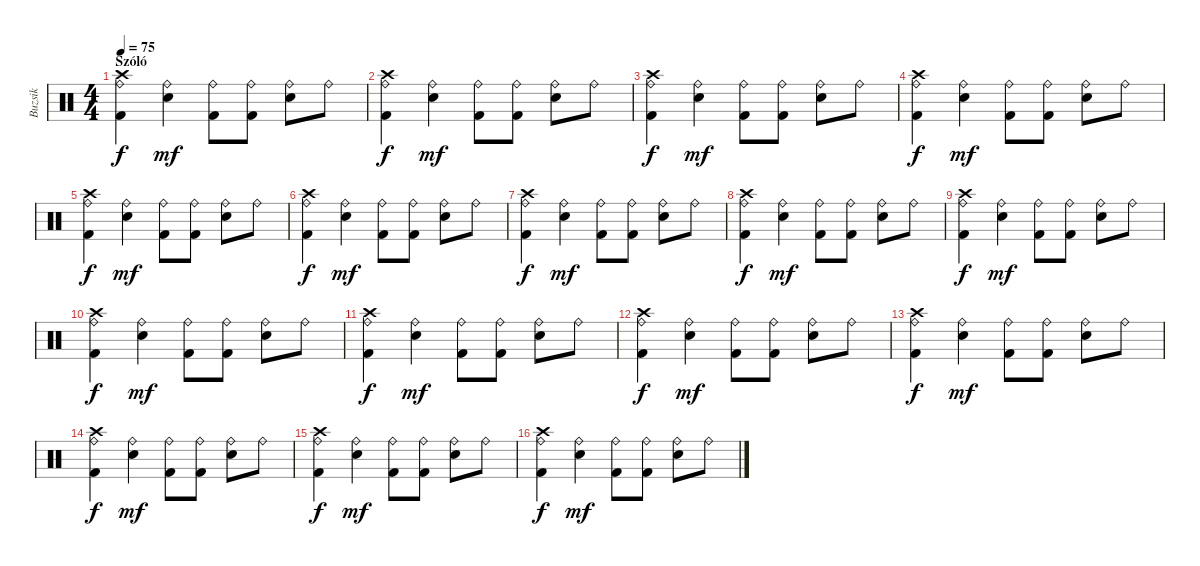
\track ("Buzsik" "Buzsik") {instrument percussion}
\staff {score}
\articulation defaults
\ts (4 4)
\section ("" "Szóló")
\tempo 75
\clef neutral
\ks c
("Crash high (hit)" "Ride (bell)" "Kick (hit) 2").4{dy f} ("Ride (bell)" "Snare (hit) 2").4{dy mf} ("Ride (bell)" "Kick (hit) 2").8 ("Ride (bell)" "Kick (hit) 2").8 ("Ride (bell)" "Snare (hit) 2").8 "Ride (bell)".8 |
("Crash high (hit)" "Ride (bell)" "Kick (hit) 2").4{dy f} ("Ride (bell)" "Snare (hit) 2").4{dy mf} ("Ride (bell)" "Kick (hit) 2").8 ("Ride (bell)" "Kick (hit) 2").8 ("Ride (bell)" "Snare (hit) 2").8 "Ride (bell)".8 |
("Crash high (hit)" "Ride (bell)" "Kick (hit) 2").4{dy f} ("Ride (bell)" "Snare (hit) 2").4{dy mf} ("Ride (bell)" "Kick (hit) 2").8 ("Ride (bell)" "Kick (hit) 2").8 ("Ride (bell)" "Snare (hit) 2").8 "Ride (bell)".8 |
("Crash high (hit)" "Ride (bell)" "Kick (hit) 2").4{dy f} ("Ride (bell)" "Snare (hit) 2").4{dy mf} ("Ride (bell)" "Kick (hit) 2").8 ("Ride (bell)" "Kick (hit) 2").8 ("Ride (bell)" "Snare (hit) 2").8 "Ride (bell)".8 |
("Crash high (hit)" "Ride (bell)" "Kick (hit) 2").4{dy f} ("Ride (bell)" "Snare (hit) 2").4{dy mf} ("Ride (bell)" "Kick (hit) 2").8 ("Ride (bell)" "Kick (hit) 2").8 ("Ride (bell)" "Snare (hit) 2").8 "Ride (bell)".8 |
("Crash high (hit)" "Ride (bell)" "Kick (hit) 2").4{dy f} ("Ride (bell)" "Snare (hit) 2").4{dy mf} ("Ride (bell)" "Kick (hit) 2").8 ("Ride (bell)" "Kick (hit) 2").8 ("Ride (bell)" "Snare (hit) 2").8 "Ride (bell)".8 |
("Crash high (hit)" "Ride (bell)" "Kick (hit) 2").4{dy f} ("Ride (bell)" "Snare (hit) 2").4{dy mf} ("Ride (bell)" "Kick (hit) 2").8 ("Ride (bell)" "Kick (hit) 2").8 ("Ride (bell)" "Snare (hit) 2").8 "Ride (bell)".8 |
("Crash high (hit)" "Ride (bell)" "Kick (hit) 2").4{dy f} ("Ride (bell)" "Snare (hit) 2").4{dy mf} ("Ride (bell)" "Kick (hit) 2").8 ("Ride (bell)" "Kick (hit) 2").8 ("Ride (bell)" "Snare (hit) 2").8 "Ride (bell)".8 |
("Crash high (hit)" "Ride (bell)" "Kick (hit) 2").4{dy f} ("Ride (bell)" "Snare (hit) 2").4{dy mf} ("Ride (bell)" "Kick (hit) 2").8 ("Ride (bell)" "Kick (hit) 2").8 ("Ride (bell)" "Snare (hit) 2").8 "Ride (bell)".8 |
("Crash high (hit)" "Ride (bell)" "Kick (hit) 2").4{dy f} ("Ride (bell)" "Snare (hit) 2").4{dy mf} ("Ride (bell)" "Kick (hit) 2").8 ("Ride (bell)" "Kick (hit) 2").8 ("Ride (bell)" "Snare (hit) 2").8 "Ride (bell)".8 |
("Crash high (hit)" "Ride (bell)" "Kick (hit) 2").4{dy f} ("Ride (bell)" "Snare (hit) 2").4{dy mf} ("Ride (bell)" "Kick (hit) 2").8 ("Ride (bell)" "Kick (hit) 2").8 ("Ride (bell)" "Snare (hit) 2").8 "Ride (bell)".8 |
("Crash high (hit)" "Ride (bell)" "Kick (hit) 2").4{dy f} ("Ride (bell)" "Snare (hit) 2").4{dy mf} ("Ride (bell)" "Kick (hit) 2").8 ("Ride (bell)" "Kick (hit) 2").8 ("Ride (bell)" "Snare (hit) 2").8 "Ride (bell)".8 |
("Crash high (hit)" "Ride (bell)" "Kick (hit) 2").4{dy f} ("Ride (bell)" "Snare (hit) 2").4{dy mf} ("Ride (bell)" "Kick (hit) 2").8 ("Ride (bell)" "Kick (hit) 2").8 ("Ride (bell)" "Snare (hit) 2").8 "Ride (bell)".8 |
("Crash high (hit)" "Ride (bell)" "Kick (hit) 2").4{dy f} ("Ride (bell)" "Snare (hit) 2").4{dy mf} ("Ride (bell)" "Kick (hit) 2").8 ("Ride (bell)" "Kick (hit) 2").8 ("Ride (bell)" "Snare (hit) 2").8 "Ride (bell)".8 |
("Crash high (hit)" "Ride (bell)" "Kick (hit) 2").4{dy f} ("Ride (bell)" "Snare (hit) 2").4{dy mf} ("Ride (bell)" "Kick (hit) 2").8 ("Ride (bell)" "Kick (hit) 2").8 ("Ride (bell)" "Snare (hit) 2").8 "Ride (bell)".8 |
("Crash high (hit)" "Ride (bell)" "Kick (hit) 2").4{dy f} ("Ride (bell)" "Snare (hit) 2").4{dy mf} ("Ride (bell)" "Kick (hit) 2").8 ("Ride (bell)" "Kick (hit) 2").8 ("Ride (bell)" "Snare (hit) 2").8 "Ride (bell)".8
